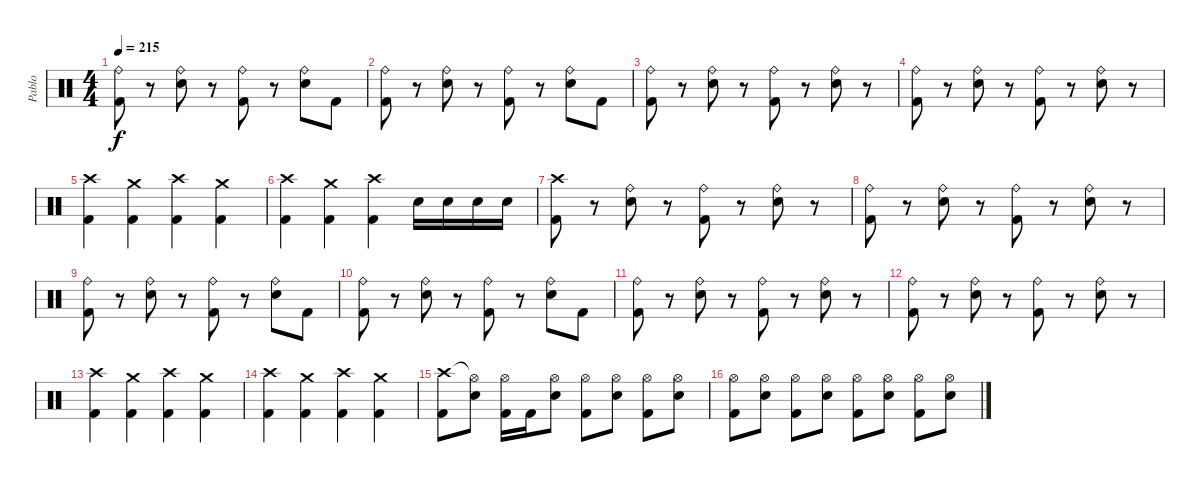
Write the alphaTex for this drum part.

\track ("Pablo" "Pablo") {instrument percussion}
\staff {score}
\articulation defaults
\ts (4 4)
\tempo 215
\clef neutral
\ks c
("Ride (bell)" "Kick (hit) 2").8{dy f} r.8 ("Ride (bell)" "Electric Snare (hit)").8 r.8 ("Ride (bell)" "Kick (hit) 2").8 r.8 ("Ride (bell)" "Electric Snare (hit)").8 "Kick (hit) 2".8 |
("Ride (bell)" "Kick (hit) 2").8 r.8 ("Ride (bell)" "Electric Snare (hit)").8 r.8 ("Ride (bell)" "Kick (hit) 2").8 r.8 ("Ride (bell)" "Electric Snare (hit)").8 "Kick (hit) 2".8 |
("Ride (bell)" "Kick (hit) 2").8 r.8 ("Ride (bell)" "Electric Snare (hit)").8 r.8 ("Ride (bell)" "Kick (hit) 2").8 r.8 ("Ride (bell)" "Electric Snare (hit)").8 r.8 |
("Ride (bell)" "Kick (hit) 2").8 r.8 ("Ride (bell)" "Electric Snare (hit)").8 r.8 ("Ride (bell)" "Kick (hit) 2").8 r.8 ("Ride (bell)" "Electric Snare (hit)").8 r.8 |
("Crash high (hit)" "Kick (hit) 2").4 ("Crash medium (hit)" "Kick (hit) 2").4 ("Crash high (hit)" "Kick (hit) 2").4 ("Crash medium (hit)" "Kick (hit) 2").4 |
("Crash high (hit)" "Kick (hit) 2").4 ("Crash medium (hit)" "Kick (hit) 2").4 ("Crash high (hit)" "Kick (hit) 2").4 "Electric Snare (hit)".16 "Electric Snare (hit)".16 "Electric Snare (hit)".16 "Electric Snare (hit)".16 |
("Crash high (hit)" "Kick (hit) 2").8 r.8 ("Ride (bell)" "Electric Snare (hit)").8 r.8 ("Ride (bell)" "Kick (hit) 2").8 r.8 ("Ride (bell)" "Electric Snare (hit)").8 r.8 |
("Ride (bell)" "Kick (hit) 2").8 r.8 ("Ride (bell)" "Electric Snare (hit)").8 r.8 ("Ride (bell)" "Kick (hit) 2").8 r.8 ("Ride (bell)" "Electric Snare (hit)").8 r.8 |
("Ride (bell)" "Kick (hit) 2").8 r.8 ("Ride (bell)" "Electric Snare (hit)").8 r.8 ("Ride (bell)" "Kick (hit) 2").8 r.8 ("Ride (bell)" "Electric Snare (hit)").8 "Kick (hit) 2".8 |
("Ride (bell)" "Kick (hit) 2").8 r.8 ("Ride (bell)" "Electric Snare (hit)").8 r.8 ("Ride (bell)" "Kick (hit) 2").8 r.8 ("Ride (bell)" "Electric Snare (hit)").8 "Kick (hit) 2".8 |
("Ride (bell)" "Kick (hit) 2").8 r.8 ("Ride (bell)" "Electric Snare (hit)").8 r.8 ("Ride (bell)" "Kick (hit) 2").8 r.8 ("Ride (bell)" "Electric Snare (hit)").8 r.8 |
("Ride (bell)" "Kick (hit) 2").8 r.8 ("Ride (bell)" "Electric Snare (hit)").8 r.8 ("Ride (bell)" "Kick (hit) 2").8 r.8 ("Ride (bell)" "Electric Snare (hit)").8 r.8 |
("Crash high (hit)" "Kick (hit) 2").4 ("Crash medium (hit)" "Kick (hit) 2").4 ("Crash high (hit)" "Kick (hit) 2").4 ("Crash medium (hit)" "Kick (hit) 2").4 |
("Crash high (hit)" "Kick (hit) 2").4 ("Crash medium (hit)" "Kick (hit) 2").4 ("Crash high (hit)" "Kick (hit) 2").4 ("Crash medium (hit)" "Kick (hit) 2").4 |
("Crash high (hit)" "Kick (hit) 2").8 ("Hi-Hat (open)"{t} "Electric Snare (hit)").8 ("Hi-Hat (open)" "Kick (hit) 2").16 "Kick (hit) 2".16 ("Hi-Hat (open)" "Electric Snare (hit)").8 ("Hi-Hat (open)" "Kick (hit) 2").8 ("Hi-Hat (open)" "Electric Snare (hit)").8 ("Hi-Hat (open)" "Kick (hit) 2").8 ("Hi-Hat (open)" "Electric Snare (hit)").8 |
("Hi-Hat (open)" "Kick (hit) 2").8 ("Hi-Hat (open)" "Electric Snare (hit)").8 ("Hi-Hat (open)" "Kick (hit) 2").8 ("Hi-Hat (open)" "Electric Snare (hit)").8 ("Hi-Hat (open)" "Kick (hit) 2").8 ("Hi-Hat (open)" "Electric Snare (hit)").8 ("Hi-Hat (open)" "Kick (hit) 2").8 ("Hi-Hat (open)" "Electric Snare (hit)").8
